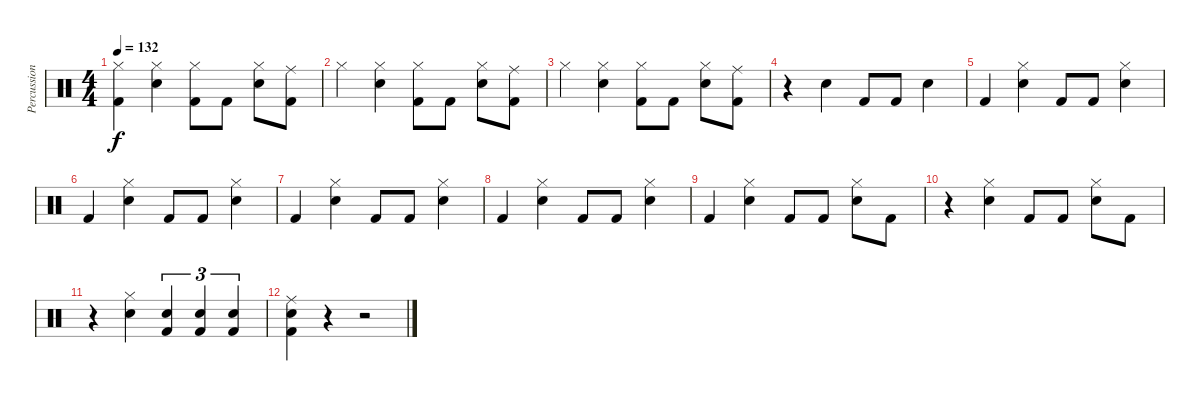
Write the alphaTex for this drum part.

\track ("Percussions" "Percussion") {instrument percussion}
\staff {score}
\articulation defaults
\ts (4 4)
\tempo 132
\clef neutral
\ks c
("Hi-Hat (closed)" "Kick (hit) 2").4{dy f} ("Hi-Hat (closed)" "Snare (hit) 2").4 ("Hi-Hat (closed)" "Kick (hit) 2").8 "Kick (hit) 2".8 ("Hi-Hat (closed)" "Snare (hit) 2").8 ("Ride (middle)" "Kick (hit) 2").8 |
"Hi-Hat (closed)".4 ("Hi-Hat (closed)" "Snare (hit) 2").4 ("Hi-Hat (closed)" "Kick (hit) 2").8 "Kick (hit) 2".8 ("Hi-Hat (closed)" "Snare (hit) 2").8 ("Ride (middle)" "Kick (hit) 2").8 |
"Hi-Hat (closed)".4 ("Hi-Hat (closed)" "Snare (hit) 2").4 ("Hi-Hat (closed)" "Kick (hit) 2").8 "Kick (hit) 2".8 ("Hi-Hat (closed)" "Snare (hit) 2").8 ("Ride (middle)" "Kick (hit) 2").8 |
r.4 "Snare (hit) 2".4 "Kick (hit) 2".8 "Kick (hit) 2".8 "Snare (hit) 2".4 |
"Kick (hit) 2".4 ("Hi-Hat (closed)" "Snare (hit) 2").4 "Kick (hit) 2".8 "Kick (hit) 2".8 ("Hi-Hat (closed)" "Snare (hit) 2").4 |
"Kick (hit) 2".4 ("Hi-Hat (closed)" "Snare (hit) 2").4 "Kick (hit) 2".8 "Kick (hit) 2".8 ("Hi-Hat (closed)" "Snare (hit) 2").4 |
"Kick (hit) 2".4 ("Hi-Hat (closed)" "Snare (hit) 2").4 "Kick (hit) 2".8 "Kick (hit) 2".8 ("Hi-Hat (closed)" "Snare (hit) 2").4 |
"Kick (hit) 2".4 ("Hi-Hat (closed)" "Snare (hit) 2").4 "Kick (hit) 2".8 "Kick (hit) 2".8 ("Hi-Hat (closed)" "Snare (hit) 2").4 |
"Kick (hit) 2".4 ("Hi-Hat (closed)" "Snare (hit) 2").4 "Kick (hit) 2".8 "Kick (hit) 2".8 ("Hi-Hat (closed)" "Snare (hit) 2").8 "Kick (hit) 2".8 |
r.4 ("Hi-Hat (closed)" "Snare (hit) 2").4 "Kick (hit) 2".8 "Kick (hit) 2".8 ("Hi-Hat (closed)" "Snare (hit) 2").8 "Kick (hit) 2".8 |
r.4 ("Hi-Hat (closed)" "Snare (hit) 2").4 ("Snare (hit) 2" "Kick (hit) 2").4{tu (3 2)} ("Snare (hit) 2" "Kick (hit) 2").4{tu (3 2)} ("Snare (hit) 2" "Kick (hit) 2").4{tu (3 2)} |
("Ride (middle)" "Snare (hit) 2" "Kick (hit) 2").4 r.4 r.2
